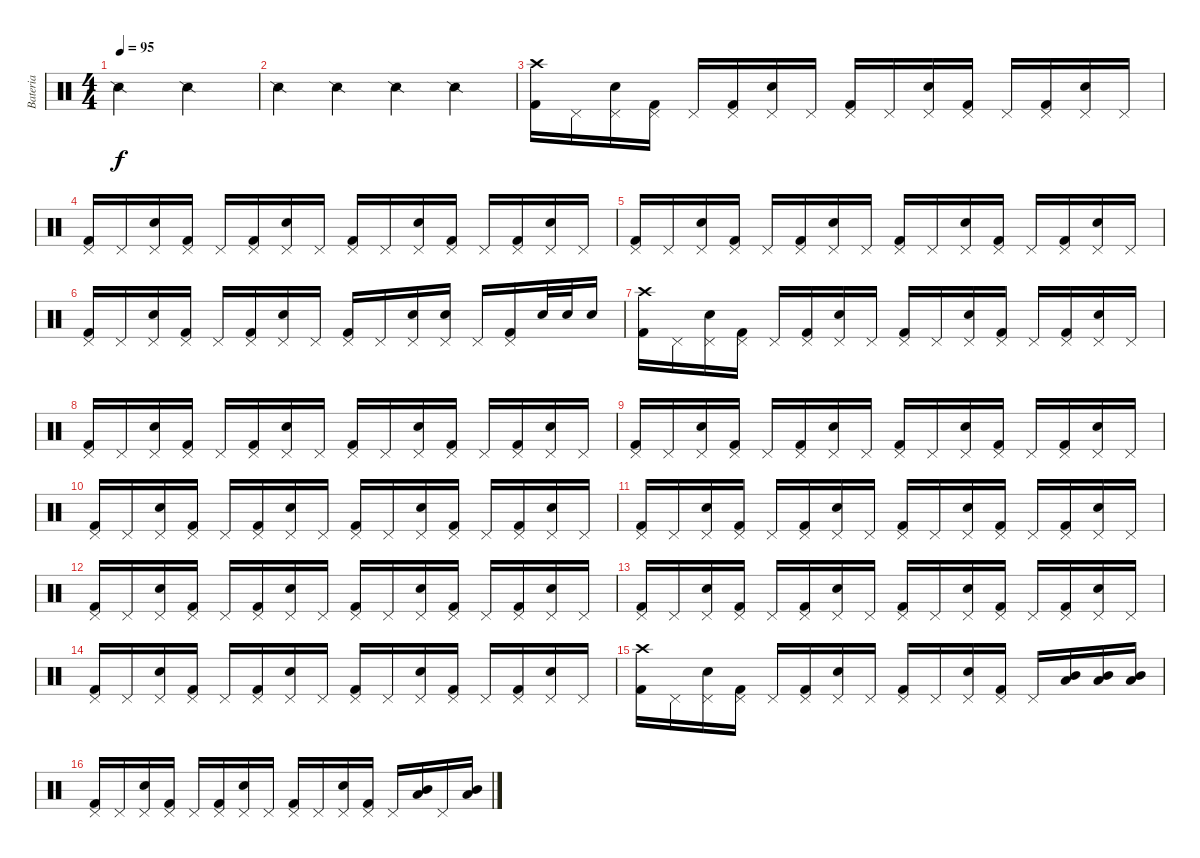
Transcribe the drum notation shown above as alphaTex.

\track ("Bateria" "Bateria") {instrument percussion}
\staff {score}
\articulation defaults
\ts (4 4)
\tempo 95
\clef neutral
\ks c "Snare (side stick) 2".2{dy f} "Snare (side stick) 2".2
|
"Snare (side stick) 2".4 "Snare (side stick) 2".4 "Snare (side stick) 2".4 "Snare (side stick) 2".4 |
("Crash high (hit)" "Kick (hit) 2").16 "Pedal Hi-Hat (hit)".16 ("Pedal Hi-Hat (hit)" "Electric Snare (hit)").16 ("Pedal Hi-Hat (hit)" "Kick (hit) 2").16 "Pedal Hi-Hat (hit)".16 ("Pedal Hi-Hat (hit)" "Kick (hit) 2").16 ("Pedal Hi-Hat (hit)" "Electric Snare (hit)").16 "Pedal Hi-Hat (hit)".16 ("Pedal Hi-Hat (hit)" "Kick (hit) 2").16 "Pedal Hi-Hat (hit)".16 ("Pedal Hi-Hat (hit)" "Electric Snare (hit)").16 ("Pedal Hi-Hat (hit)" "Kick (hit) 2").16 "Pedal Hi-Hat (hit)".16 ("Pedal Hi-Hat (hit)" "Kick (hit) 2").16 ("Pedal Hi-Hat (hit)" "Electric Snare (hit)").16 "Pedal Hi-Hat (hit)".16 |
("Pedal Hi-Hat (hit)" "Kick (hit) 2").16 "Pedal Hi-Hat (hit)".16 ("Pedal Hi-Hat (hit)" "Electric Snare (hit)").16 ("Pedal Hi-Hat (hit)" "Kick (hit) 2").16 "Pedal Hi-Hat (hit)".16 ("Pedal Hi-Hat (hit)" "Kick (hit) 2").16 ("Pedal Hi-Hat (hit)" "Electric Snare (hit)").16 "Pedal Hi-Hat (hit)".16 ("Pedal Hi-Hat (hit)" "Kick (hit) 2").16 "Pedal Hi-Hat (hit)".16 ("Pedal Hi-Hat (hit)" "Electric Snare (hit)").16 ("Pedal Hi-Hat (hit)" "Kick (hit) 2").16 "Pedal Hi-Hat (hit)".16 ("Pedal Hi-Hat (hit)" "Kick (hit) 2").16 ("Pedal Hi-Hat (hit)" "Electric Snare (hit)").16 "Pedal Hi-Hat (hit)".16 |
("Pedal Hi-Hat (hit)" "Kick (hit) 2").16 "Pedal Hi-Hat (hit)".16 ("Pedal Hi-Hat (hit)" "Electric Snare (hit)").16 ("Pedal Hi-Hat (hit)" "Kick (hit) 2").16 "Pedal Hi-Hat (hit)".16 ("Pedal Hi-Hat (hit)" "Kick (hit) 2").16 ("Pedal Hi-Hat (hit)" "Electric Snare (hit)").16 "Pedal Hi-Hat (hit)".16 ("Pedal Hi-Hat (hit)" "Kick (hit) 2").16 "Pedal Hi-Hat (hit)".16 ("Pedal Hi-Hat (hit)" "Electric Snare (hit)").16 ("Pedal Hi-Hat (hit)" "Kick (hit) 2").16 "Pedal Hi-Hat (hit)".16 ("Pedal Hi-Hat (hit)" "Kick (hit) 2").16 ("Pedal Hi-Hat (hit)" "Electric Snare (hit)").16 "Pedal Hi-Hat (hit)".16 |
("Pedal Hi-Hat (hit)" "Kick (hit) 2").16 "Pedal Hi-Hat (hit)".16 ("Pedal Hi-Hat (hit)" "Electric Snare (hit)").16 ("Pedal Hi-Hat (hit)" "Kick (hit) 2").16 "Pedal Hi-Hat (hit)".16 ("Pedal Hi-Hat (hit)" "Kick (hit) 2").16 ("Pedal Hi-Hat (hit)" "Electric Snare (hit)").16 "Pedal Hi-Hat (hit)".16 ("Pedal Hi-Hat (hit)" "Kick (hit) 2").16 "Pedal Hi-Hat (hit)".16 ("Pedal Hi-Hat (hit)" "Electric Snare (hit)").16 ("Pedal Hi-Hat (hit)" "Electric Snare (hit)").16 "Pedal Hi-Hat (hit)".16 ("Pedal Hi-Hat (hit)" "Kick (hit) 2").16 "Electric Snare (hit)".32 "Electric Snare (hit)".32 "Electric Snare (hit)".16 |
("Crash high (hit)" "Kick (hit) 2").16 "Pedal Hi-Hat (hit)".16 ("Pedal Hi-Hat (hit)" "Electric Snare (hit)").16 ("Pedal Hi-Hat (hit)" "Kick (hit) 2").16 "Pedal Hi-Hat (hit)".16 ("Pedal Hi-Hat (hit)" "Kick (hit) 2").16 ("Pedal Hi-Hat (hit)" "Electric Snare (hit)").16 "Pedal Hi-Hat (hit)".16 ("Pedal Hi-Hat (hit)" "Kick (hit) 2").16 "Pedal Hi-Hat (hit)".16 ("Pedal Hi-Hat (hit)" "Electric Snare (hit)").16 ("Pedal Hi-Hat (hit)" "Kick (hit) 2").16 "Pedal Hi-Hat (hit)".16 ("Pedal Hi-Hat (hit)" "Kick (hit) 2").16 ("Pedal Hi-Hat (hit)" "Electric Snare (hit)").16 "Pedal Hi-Hat (hit)".16 |
("Pedal Hi-Hat (hit)" "Kick (hit) 2").16 "Pedal Hi-Hat (hit)".16 ("Pedal Hi-Hat (hit)" "Electric Snare (hit)").16 ("Pedal Hi-Hat (hit)" "Kick (hit) 2").16 "Pedal Hi-Hat (hit)".16 ("Pedal Hi-Hat (hit)" "Kick (hit) 2").16 ("Pedal Hi-Hat (hit)" "Electric Snare (hit)").16 "Pedal Hi-Hat (hit)".16 ("Pedal Hi-Hat (hit)" "Kick (hit) 2").16 "Pedal Hi-Hat (hit)".16 ("Pedal Hi-Hat (hit)" "Electric Snare (hit)").16 ("Pedal Hi-Hat (hit)" "Kick (hit) 2").16 "Pedal Hi-Hat (hit)".16 ("Pedal Hi-Hat (hit)" "Kick (hit) 2").16 ("Pedal Hi-Hat (hit)" "Electric Snare (hit)").16 "Pedal Hi-Hat (hit)".16 |
("Pedal Hi-Hat (hit)" "Kick (hit) 2").16 "Pedal Hi-Hat (hit)".16 ("Pedal Hi-Hat (hit)" "Electric Snare (hit)").16 ("Pedal Hi-Hat (hit)" "Kick (hit) 2").16 "Pedal Hi-Hat (hit)".16 ("Pedal Hi-Hat (hit)" "Kick (hit) 2").16 ("Pedal Hi-Hat (hit)" "Electric Snare (hit)").16 "Pedal Hi-Hat (hit)".16 ("Pedal Hi-Hat (hit)" "Kick (hit) 2").16 "Pedal Hi-Hat (hit)".16 ("Pedal Hi-Hat (hit)" "Electric Snare (hit)").16 ("Pedal Hi-Hat (hit)" "Kick (hit) 2").16 "Pedal Hi-Hat (hit)".16 ("Pedal Hi-Hat (hit)" "Kick (hit) 2").16 ("Pedal Hi-Hat (hit)" "Electric Snare (hit)").16 "Pedal Hi-Hat (hit)".16 |
("Pedal Hi-Hat (hit)" "Kick (hit) 2").16 "Pedal Hi-Hat (hit)".16 ("Pedal Hi-Hat (hit)" "Electric Snare (hit)").16 ("Pedal Hi-Hat (hit)" "Kick (hit) 2").16 "Pedal Hi-Hat (hit)".16 ("Pedal Hi-Hat (hit)" "Kick (hit) 2").16 ("Pedal Hi-Hat (hit)" "Electric Snare (hit)").16 "Pedal Hi-Hat (hit)".16 ("Pedal Hi-Hat (hit)" "Kick (hit) 2").16 "Pedal Hi-Hat (hit)".16 ("Pedal Hi-Hat (hit)" "Electric Snare (hit)").16 ("Pedal Hi-Hat (hit)" "Kick (hit) 2").16 "Pedal Hi-Hat (hit)".16 ("Pedal Hi-Hat (hit)" "Kick (hit) 2").16 ("Pedal Hi-Hat (hit)" "Electric Snare (hit)").16 "Pedal Hi-Hat (hit)".16 |
("Pedal Hi-Hat (hit)" "Kick (hit) 2").16 "Pedal Hi-Hat (hit)".16 ("Pedal Hi-Hat (hit)" "Electric Snare (hit)").16 ("Pedal Hi-Hat (hit)" "Kick (hit) 2").16 "Pedal Hi-Hat (hit)".16 ("Pedal Hi-Hat (hit)" "Kick (hit) 2").16 ("Pedal Hi-Hat (hit)" "Electric Snare (hit)").16 "Pedal Hi-Hat (hit)".16 ("Pedal Hi-Hat (hit)" "Kick (hit) 2").16 "Pedal Hi-Hat (hit)".16 ("Pedal Hi-Hat (hit)" "Electric Snare (hit)").16 ("Pedal Hi-Hat (hit)" "Kick (hit) 2").16 "Pedal Hi-Hat (hit)".16 ("Pedal Hi-Hat (hit)" "Kick (hit) 2").16 ("Pedal Hi-Hat (hit)" "Electric Snare (hit)").16 "Pedal Hi-Hat (hit)".16 |
("Pedal Hi-Hat (hit)" "Kick (hit) 2").16 "Pedal Hi-Hat (hit)".16 ("Pedal Hi-Hat (hit)" "Electric Snare (hit)").16 ("Pedal Hi-Hat (hit)" "Kick (hit) 2").16 "Pedal Hi-Hat (hit)".16 ("Pedal Hi-Hat (hit)" "Kick (hit) 2").16 ("Pedal Hi-Hat (hit)" "Electric Snare (hit)").16 "Pedal Hi-Hat (hit)".16 ("Pedal Hi-Hat (hit)" "Kick (hit) 2").16 "Pedal Hi-Hat (hit)".16 ("Pedal Hi-Hat (hit)" "Electric Snare (hit)").16 ("Pedal Hi-Hat (hit)" "Kick (hit) 2").16 "Pedal Hi-Hat (hit)".16 ("Pedal Hi-Hat (hit)" "Kick (hit) 2").16 ("Pedal Hi-Hat (hit)" "Electric Snare (hit)").16 "Pedal Hi-Hat (hit)".16 |
("Pedal Hi-Hat (hit)" "Kick (hit) 2").16 "Pedal Hi-Hat (hit)".16 ("Pedal Hi-Hat (hit)" "Electric Snare (hit)").16 ("Pedal Hi-Hat (hit)" "Kick (hit) 2").16 "Pedal Hi-Hat (hit)".16 ("Pedal Hi-Hat (hit)" "Kick (hit) 2").16 ("Pedal Hi-Hat (hit)" "Electric Snare (hit)").16 "Pedal Hi-Hat (hit)".16 ("Pedal Hi-Hat (hit)" "Kick (hit) 2").16 "Pedal Hi-Hat (hit)".16 ("Pedal Hi-Hat (hit)" "Electric Snare (hit)").16 ("Pedal Hi-Hat (hit)" "Kick (hit) 2").16 "Pedal Hi-Hat (hit)".16 ("Pedal Hi-Hat (hit)" "Kick (hit) 2").16 ("Pedal Hi-Hat (hit)" "Electric Snare (hit)").16 "Pedal Hi-Hat (hit)".16 |
("Pedal Hi-Hat (hit)" "Kick (hit) 2").16 "Pedal Hi-Hat (hit)".16 ("Pedal Hi-Hat (hit)" "Electric Snare (hit)").16 ("Pedal Hi-Hat (hit)" "Kick (hit) 2").16 "Pedal Hi-Hat (hit)".16 ("Pedal Hi-Hat (hit)" "Kick (hit) 2").16 ("Pedal Hi-Hat (hit)" "Electric Snare (hit)").16 "Pedal Hi-Hat (hit)".16 ("Pedal Hi-Hat (hit)" "Kick (hit) 2").16 "Pedal Hi-Hat (hit)".16 ("Pedal Hi-Hat (hit)" "Electric Snare (hit)").16 ("Pedal Hi-Hat (hit)" "Kick (hit) 2").16 "Pedal Hi-Hat (hit)".16 ("Pedal Hi-Hat (hit)" "Kick (hit) 2").16 ("Pedal Hi-Hat (hit)" "Electric Snare (hit)").16 "Pedal Hi-Hat (hit)".16 |
("Crash high (hit)" "Kick (hit) 2").16 "Pedal Hi-Hat (hit)".16 ("Pedal Hi-Hat (hit)" "Electric Snare (hit)").16 ("Pedal Hi-Hat (hit)" "Kick (hit) 2").16 "Pedal Hi-Hat (hit)".16 ("Pedal Hi-Hat (hit)" "Kick (hit) 2").16 ("Pedal Hi-Hat (hit)" "Electric Snare (hit)").16 "Pedal Hi-Hat (hit)".16 ("Pedal Hi-Hat (hit)" "Kick (hit) 2").16 "Pedal Hi-Hat (hit)".16 ("Pedal Hi-Hat (hit)" "Electric Snare (hit)").16 ("Pedal Hi-Hat (hit)" "Kick (hit) 2").16 "Pedal Hi-Hat (hit)".16 ("Low Tom (hit)" "Mid Tom (hit)").16 ("Low Tom (hit)" "Mid Tom (hit)").16 ("Low Tom (hit)" "Mid Tom (hit)").16 |
("Pedal Hi-Hat (hit)" "Kick (hit) 2").16 "Pedal Hi-Hat (hit)".16 ("Pedal Hi-Hat (hit)" "Electric Snare (hit)").16 ("Pedal Hi-Hat (hit)" "Kick (hit) 2").16 "Pedal Hi-Hat (hit)".16 ("Pedal Hi-Hat (hit)" "Kick (hit) 2").16 ("Pedal Hi-Hat (hit)" "Electric Snare (hit)").16 "Pedal Hi-Hat (hit)".16 ("Pedal Hi-Hat (hit)" "Kick (hit) 2").16 "Pedal Hi-Hat (hit)".16 ("Pedal Hi-Hat (hit)" "Electric Snare (hit)").16 ("Pedal Hi-Hat (hit)" "Kick (hit) 2").16 "Pedal Hi-Hat (hit)".16 ("Low Tom (hit)" "Mid Tom (hit)").16 "Pedal Hi-Hat (hit)".16 ("Low Tom (hit)" "Mid Tom (hit)").16
